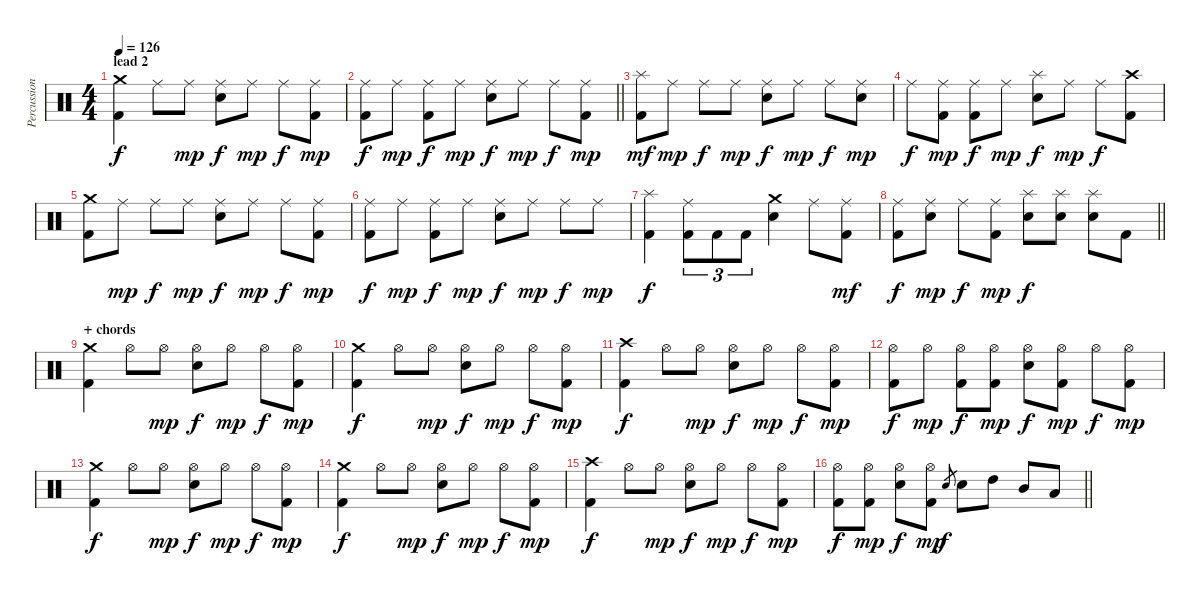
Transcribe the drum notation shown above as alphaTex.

\track ("Percussion" "Percussion") {instrument percussion}
\staff {score}
\articulation defaults
\ts (4 4)
\section ("" "lead 2")
\tempo 126
\clef neutral
\ks c
("Crash medium (hit)" "Kick (hit) 2").4{dy f} "Ride (middle)".8 "Ride (middle)".8{dy mp} ("Ride (middle)" "Electric Snare (hit)").8{dy f} "Ride (middle)".8{dy mp} "Ride (middle)".8{dy f} ("Ride (middle)" "Kick (hit) 2").8{dy mp} |
\barLineRight lightlight
("Ride (middle)" "Kick (hit) 2").8{dy f} "Ride (middle)".8{dy mp} ("Ride (middle)" "Kick (hit) 2").8{dy f} "Ride (middle)".8{dy mp} ("Ride (middle)" "Electric Snare (hit)").8{dy f} "Ride (middle)".8{dy mp} "Ride (middle)".8{dy f} ("Ride (middle)" "Kick (hit) 2").8{dy mp} |
("Splash (hit)" "Kick (hit) 2").8{dy mf} "Ride (middle)".8{dy mp} "Ride (middle)".8{dy f} "Ride (middle)".8{dy mp} ("Ride (middle)" "Electric Snare (hit)").8{dy f} "Ride (middle)".8{dy mp} "Ride (middle)".8{dy f} ("Ride (middle)" "Electric Snare (hit)").8{dy mp} |
"Ride (middle)".8{dy f} ("Ride (middle)" "Kick (hit) 2").8{dy mp} ("Ride (middle)" "Kick (hit) 2").8{dy f} "Ride (middle)".8{dy mp} ("Splash (hit)" "Electric Snare (hit)").8{dy f} "Ride (middle)".8{dy mp} "Ride (middle)".8{dy f} ("Crash high (hit)" "Kick (hit) 2").8 |
("Crash medium (hit)" "Kick (hit) 2").8 "Ride (middle)".8{dy mp} "Ride (middle)".8{dy f} "Ride (middle)".8{dy mp} ("Ride (middle)" "Electric Snare (hit)").8{dy f} "Ride (middle)".8{dy mp} "Ride (middle)".8{dy f} ("Ride (middle)" "Kick (hit) 2").8{dy mp} |
("Ride (middle)" "Kick (hit) 2").8{dy f} "Ride (middle)".8{dy mp} ("Ride (middle)" "Kick (hit) 2").8{dy f} "Ride (middle)".8{dy mp} ("Ride (middle)" "Electric Snare (hit)").8{dy f} "Ride (middle)".8{dy mp} "Ride (middle)".8{dy f} "Ride (middle)".8{dy mp} |
("Splash (hit)" "Kick (hit) 2").4{dy f} ("Ride (middle)" "Kick (hit) 2").8{tu (3 2)} "Kick (hit) 2".8{tu (3 2)} "Kick (hit) 2".8{tu (3 2)} ("Crash medium (hit)" "Electric Snare (hit)").4 "Ride (middle)".8 ("Ride (middle)" "Kick (hit) 2").8{dy mf} |
\barLineRight lightlight
("Ride (middle)" "Kick (hit) 2").8{dy f} ("Ride (middle)" "Electric Snare (hit)").8{dy mp} "Ride (middle)".8{dy f} ("Ride (middle)" "Kick (hit) 2").8{dy mp} ("Splash (hit)" "Electric Snare (hit)").8{dy f} ("Splash (hit)" "Electric Snare (hit)").8 ("Splash (hit)" "Electric Snare (hit)").8 "Kick (hit) 2".8 |
\section ("" "+ chords")
("Crash medium (hit)" "Kick (hit) 2").4 "Hi-Hat (open)".8 "Hi-Hat (open)".8{dy mp} ("Hi-Hat (open)" "Electric Snare (hit)").8{dy f} "Hi-Hat (open)".8{dy mp} "Hi-Hat (open)".8{dy f} ("Hi-Hat (open)" "Kick (hit) 2").8{dy mp} |
("Crash medium (hit)" "Kick (hit) 2").4{dy f} "Hi-Hat (open)".8 "Hi-Hat (open)".8{dy mp} ("Hi-Hat (open)" "Electric Snare (hit)").8{dy f} "Hi-Hat (open)".8{dy mp} "Hi-Hat (open)".8{dy f} ("Hi-Hat (open)" "Kick (hit) 2").8{dy mp} |
("Crash high (hit)" "Kick (hit) 2").4{dy f} "Hi-Hat (open)".8 "Hi-Hat (open)".8{dy mp} ("Hi-Hat (open)" "Electric Snare (hit)").8{dy f} "Hi-Hat (open)".8{dy mp} "Hi-Hat (open)".8{dy f} ("Hi-Hat (open)" "Kick (hit) 2").8{dy mp} |
("Hi-Hat (open)" "Kick (hit) 2").8{dy f} "Hi-Hat (open)".8{dy mp} ("Hi-Hat (open)" "Kick (hit) 2").8{dy f} ("Hi-Hat (open)" "Kick (hit) 2").8{dy mp} ("Hi-Hat (open)" "Electric Snare (hit)").8{dy f} ("Hi-Hat (open)" "Kick (hit) 2").8{dy mp} "Hi-Hat (open)".8{dy f} ("Hi-Hat (open)" "Kick (hit) 2").8{dy mp} |
("Crash medium (hit)" "Kick (hit) 2").4{dy f} "Hi-Hat (open)".8 "Hi-Hat (open)".8{dy mp} ("Hi-Hat (open)" "Electric Snare (hit)").8{dy f} "Hi-Hat (open)".8{dy mp} "Hi-Hat (open)".8{dy f} ("Hi-Hat (open)" "Kick (hit) 2").8{dy mp} |
("Crash medium (hit)" "Kick (hit) 2").4{dy f} "Hi-Hat (open)".8 "Hi-Hat (open)".8{dy mp} ("Hi-Hat (open)" "Electric Snare (hit)").8{dy f} "Hi-Hat (open)".8{dy mp} "Hi-Hat (open)".8{dy f} ("Hi-Hat (open)" "Kick (hit) 2").8{dy mp} |
("Crash high (hit)" "Kick (hit) 2").4{dy f} "Hi-Hat (open)".8 "Hi-Hat (open)".8{dy mp} ("Hi-Hat (open)" "Electric Snare (hit)").8{dy f} "Hi-Hat (open)".8{dy mp} "Hi-Hat (open)".8{dy f} ("Hi-Hat (open)" "Kick (hit) 2").8{dy mp} |
\barLineRight lightlight
("Hi-Hat (open)" "Kick (hit) 2").8{dy f} ("Hi-Hat (open)" "Kick (hit) 2").8{dy mp} ("Hi-Hat (open)" "Electric Snare (hit)").8{dy f} ("Hi-Hat (open)" "Kick (hit) 2").8{dy mp} "Electric Snare (hit)".8{gr dy f} "Electric Snare (hit)".8 "High Tom (hit)".8 "Mid Tom (hit)".8 "Low Tom (hit)".8
